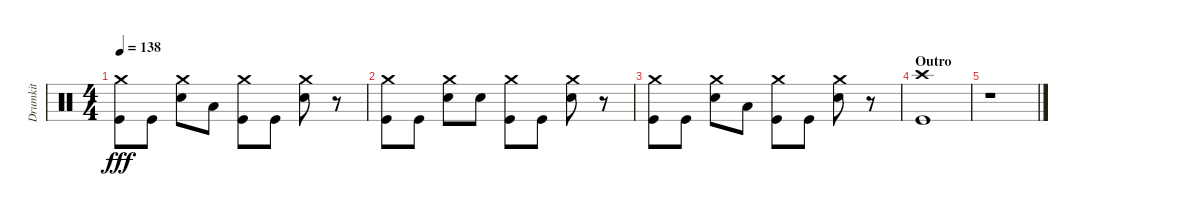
\track ("Drumkit" "Drumkit") {instrument percussion}
\staff {score}
\articulation defaults
\ts (4 4)
\tempo 138
\clef neutral
\ks c
("Crash medium (hit)" "Kick (hit)").8{dy fff} "Kick (hit)".8 ("Crash medium (hit)" "Snare (hit) 2").8 "Low Floor Tom (hit)".8 ("Crash medium (hit)" "Kick (hit)").8 "Kick (hit)".8 ("Crash medium (hit)" "Snare (hit) 2").8 r.8 |
("Crash medium (hit)" "Kick (hit)").8 "Kick (hit)".8 ("Crash medium (hit)" "Snare (hit) 2").8 "Snare (hit) 2".8 ("Crash medium (hit)" "Kick (hit)").8 "Kick (hit)".8 ("Crash medium (hit)" "Snare (hit) 2").8 r.8 |
("Crash medium (hit)" "Kick (hit)").8 "Kick (hit)".8 ("Crash medium (hit)" "Snare (hit) 2").8 "Low Floor Tom (hit)".8 ("Crash medium (hit)" "Kick (hit)").8 "Kick (hit)".8 ("Crash medium (hit)" "Snare (hit) 2").8 r.8 |
\section ("" "Outro")
("Crash high (hit)" "Kick (hit)").1 |
r.1
